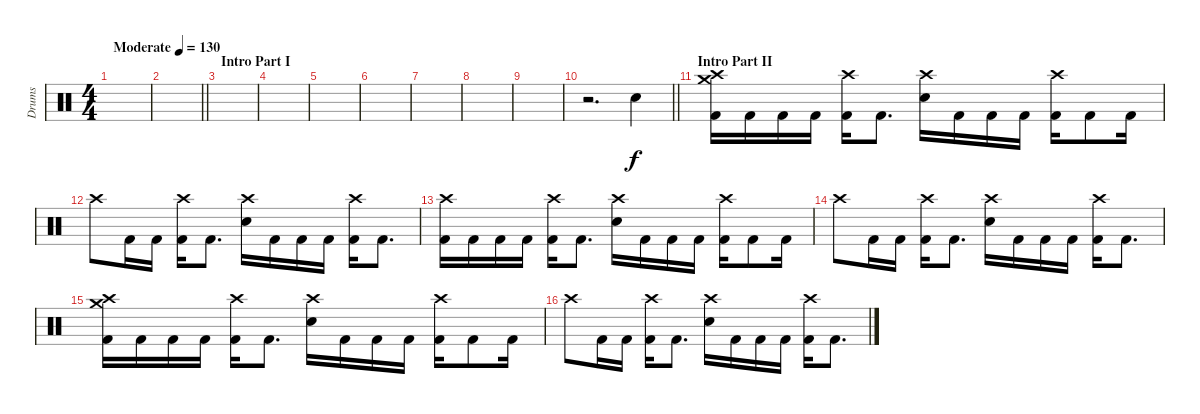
\track ("Drums" "Drums") {instrument percussion}
\staff {score}
\articulation defaults
\ts (4 4)
\tempo (130 "Moderate")
\clef neutral
\ks c
|
\barLineRight lightlight
|
\section ("" "Intro Part I")
|
|
|
|
|
|
|
\barLineRight lightlight
r.2{d} "Electric Snare (hit)".4 |
\section ("" "Intro Part II")
("Crash high (hit)" "Crash medium (hit)" "Kick (hit) 2").16 "Kick (hit) 2".16 "Kick (hit) 2".16 "Kick (hit) 2".16 ("Crash high (hit)" "Kick (hit) 2").16 "Kick (hit) 2".8{d} ("Crash high (hit)" "Electric Snare (hit)").16 "Kick (hit) 2".16 "Kick (hit) 2".16 "Kick (hit) 2".16 ("Crash high (hit)" "Kick (hit) 2").16 "Kick (hit) 2".8 "Kick (hit) 2".16 |
"Crash high (hit)".8 "Kick (hit) 2".16 "Kick (hit) 2".16 ("Crash high (hit)" "Kick (hit) 2").16 "Kick (hit) 2".8{d} ("Crash high (hit)" "Electric Snare (hit)").16 "Kick (hit) 2".16 "Kick (hit) 2".16 "Kick (hit) 2".16 ("Crash high (hit)" "Kick (hit) 2").16 "Kick (hit) 2".8{d} |
("Crash high (hit)" "Kick (hit) 2").16 "Kick (hit) 2".16 "Kick (hit) 2".16 "Kick (hit) 2".16 ("Crash high (hit)" "Kick (hit) 2").16 "Kick (hit) 2".8{d} ("Crash high (hit)" "Electric Snare (hit)").16 "Kick (hit) 2".16 "Kick (hit) 2".16 "Kick (hit) 2".16 ("Crash high (hit)" "Kick (hit) 2").16 "Kick (hit) 2".8 "Kick (hit) 2".16 |
"Crash high (hit)".8 "Kick (hit) 2".16 "Kick (hit) 2".16 ("Crash high (hit)" "Kick (hit) 2").16 "Kick (hit) 2".8{d} ("Crash high (hit)" "Electric Snare (hit)").16 "Kick (hit) 2".16 "Kick (hit) 2".16 "Kick (hit) 2".16 ("Crash high (hit)" "Kick (hit) 2").16 "Kick (hit) 2".8{d} |
("Crash high (hit)" "Crash medium (hit)" "Kick (hit) 2").16 "Kick (hit) 2".16 "Kick (hit) 2".16 "Kick (hit) 2".16 ("Crash high (hit)" "Kick (hit) 2").16 "Kick (hit) 2".8{d} ("Crash high (hit)" "Electric Snare (hit)").16 "Kick (hit) 2".16 "Kick (hit) 2".16 "Kick (hit) 2".16 ("Crash high (hit)" "Kick (hit) 2").16 "Kick (hit) 2".8 "Kick (hit) 2".16 |
"Crash high (hit)".8 "Kick (hit) 2".16 "Kick (hit) 2".16 ("Crash high (hit)" "Kick (hit) 2").16 "Kick (hit) 2".8{d} ("Crash high (hit)" "Electric Snare (hit)").16 "Kick (hit) 2".16 "Kick (hit) 2".16 "Kick (hit) 2".16 ("Crash high (hit)" "Kick (hit) 2").16 "Kick (hit) 2".8{d}
